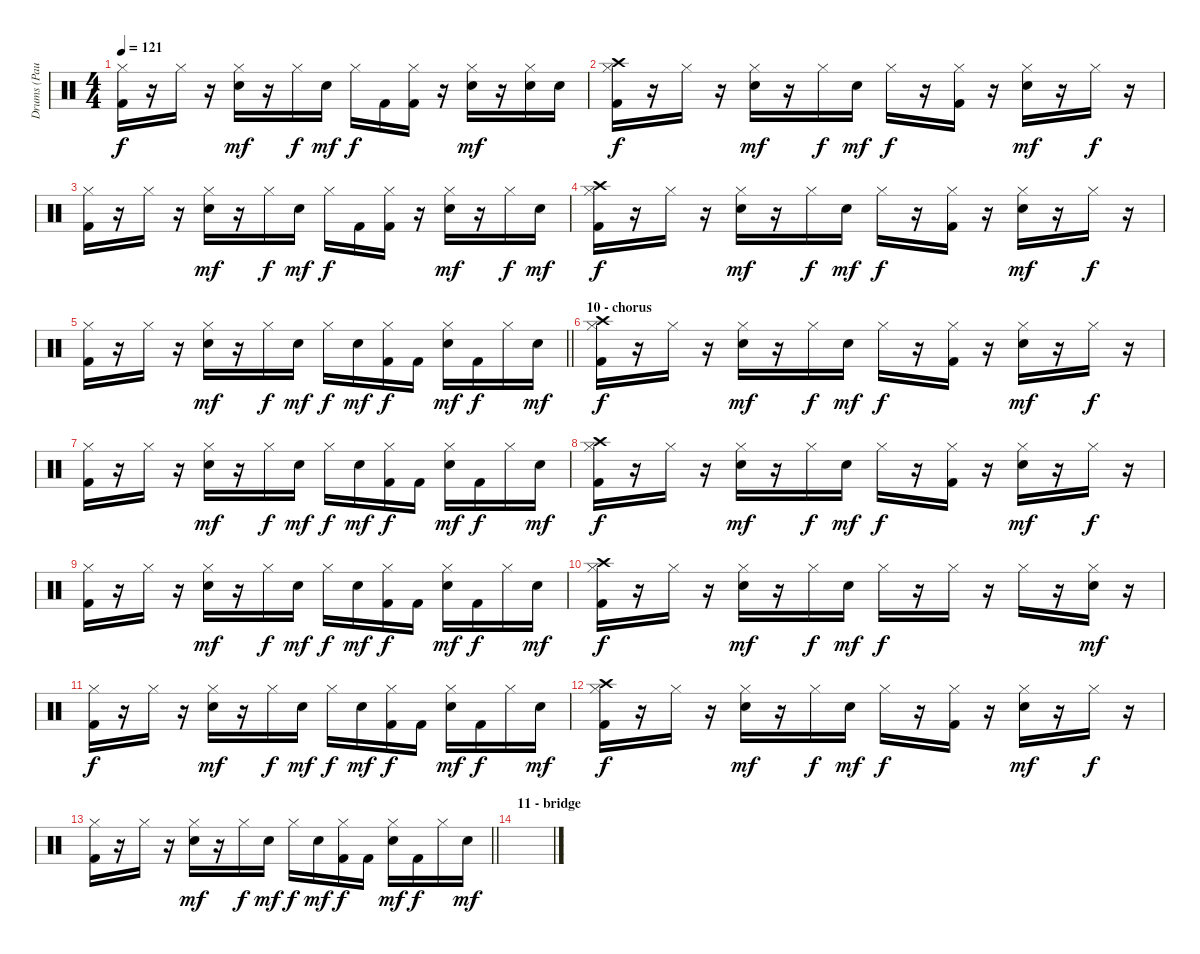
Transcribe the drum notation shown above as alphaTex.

\track ("Drums (Paul)" "Drums (Pau") {instrument percussion}
\staff {score}
\articulation defaults
\ts (4 4)
\tempo 121
\clef neutral
\ks c
("Hi-Hat (closed)" "Kick (hit) 2").16{dy f} r.16 "Hi-Hat (closed)".16 r.16 ("Hi-Hat (closed)" "Snare (hit) 2").16{dy mf} r.16 "Hi-Hat (closed)".16{dy f} "Snare (hit) 2".16{dy mf} "Hi-Hat (closed)".16{dy f} "Kick (hit) 2".16 ("Hi-Hat (closed)" "Kick (hit) 2").16 r.16 ("Hi-Hat (closed)" "Snare (hit) 2").16{dy mf} r.16 ("Hi-Hat (closed)" "Snare (hit) 2").16 "Snare (hit) 2".16 |
("Hi-Hat (closed)" "Crash high (hit)" "Kick (hit) 2").16{dy f} r.16 "Hi-Hat (closed)".16 r.16 ("Hi-Hat (closed)" "Snare (hit) 2").16{dy mf} r.16 "Hi-Hat (closed)".16{dy f} "Snare (hit) 2".16{dy mf} "Hi-Hat (closed)".16{dy f} r.16 ("Hi-Hat (closed)" "Kick (hit) 2").16 r.16 ("Hi-Hat (closed)" "Snare (hit) 2").16{dy mf} r.16 "Hi-Hat (closed)".16{dy f} r.16 |
("Hi-Hat (closed)" "Kick (hit) 2").16 r.16 "Hi-Hat (closed)".16 r.16 ("Hi-Hat (closed)" "Snare (hit) 2").16{dy mf} r.16 "Hi-Hat (closed)".16{dy f} "Snare (hit) 2".16{dy mf} "Hi-Hat (closed)".16{dy f} "Kick (hit) 2".16 ("Hi-Hat (closed)" "Kick (hit) 2").16 r.16 ("Hi-Hat (closed)" "Snare (hit) 2").16{dy mf} r.16 "Hi-Hat (closed)".16{dy f} "Snare (hit) 2".16{dy mf} |
("Hi-Hat (closed)" "Crash high (hit)" "Kick (hit) 2").16{dy f} r.16 "Hi-Hat (closed)".16 r.16 ("Hi-Hat (closed)" "Snare (hit) 2").16{dy mf} r.16 "Hi-Hat (closed)".16{dy f} "Snare (hit) 2".16{dy mf} "Hi-Hat (closed)".16{dy f} r.16 ("Hi-Hat (closed)" "Kick (hit) 2").16 r.16 ("Hi-Hat (closed)" "Snare (hit) 2").16{dy mf} r.16 "Hi-Hat (closed)".16{dy f} r.16 |
\barLineRight lightlight
("Hi-Hat (closed)" "Kick (hit) 2").16 r.16 "Hi-Hat (closed)".16 r.16 ("Hi-Hat (closed)" "Snare (hit) 2").16{dy mf} r.16 "Hi-Hat (closed)".16{dy f} "Snare (hit) 2".16{dy mf} "Hi-Hat (closed)".16{dy f} "Snare (hit) 2".16{dy mf} ("Hi-Hat (closed)" "Kick (hit) 2").16{dy f} "Kick (hit) 2".16 ("Hi-Hat (closed)" "Snare (hit) 2").16{dy mf} "Kick (hit) 2".16{dy f} "Hi-Hat (closed)".16 "Snare (hit) 2".16{dy mf} |
\section ("" "10 - chorus")
("Hi-Hat (closed)" "Crash high (hit)" "Kick (hit) 2").16{dy f} r.16 "Hi-Hat (closed)".16 r.16 ("Hi-Hat (closed)" "Snare (hit) 2").16{dy mf} r.16 "Hi-Hat (closed)".16{dy f} "Snare (hit) 2".16{dy mf} "Hi-Hat (closed)".16{dy f} r.16 ("Hi-Hat (closed)" "Kick (hit) 2").16 r.16 ("Hi-Hat (closed)" "Snare (hit) 2").16{dy mf} r.16 "Hi-Hat (closed)".16{dy f} r.16 |
("Hi-Hat (closed)" "Kick (hit) 2").16 r.16 "Hi-Hat (closed)".16 r.16 ("Hi-Hat (closed)" "Snare (hit) 2").16{dy mf} r.16 "Hi-Hat (closed)".16{dy f} "Snare (hit) 2".16{dy mf} "Hi-Hat (closed)".16{dy f} "Snare (hit) 2".16{dy mf} ("Hi-Hat (closed)" "Kick (hit) 2").16{dy f} "Kick (hit) 2".16 ("Hi-Hat (closed)" "Snare (hit) 2").16{dy mf} "Kick (hit) 2".16{dy f} "Hi-Hat (closed)".16 "Snare (hit) 2".16{dy mf} |
("Hi-Hat (closed)" "Crash high (hit)" "Kick (hit) 2").16{dy f} r.16 "Hi-Hat (closed)".16 r.16 ("Hi-Hat (closed)" "Snare (hit) 2").16{dy mf} r.16 "Hi-Hat (closed)".16{dy f} "Snare (hit) 2".16{dy mf} "Hi-Hat (closed)".16{dy f} r.16 ("Hi-Hat (closed)" "Kick (hit) 2").16 r.16 ("Hi-Hat (closed)" "Snare (hit) 2").16{dy mf} r.16 "Hi-Hat (closed)".16{dy f} r.16 |
("Hi-Hat (closed)" "Kick (hit) 2").16 r.16 "Hi-Hat (closed)".16 r.16 ("Hi-Hat (closed)" "Snare (hit) 2").16{dy mf} r.16 "Hi-Hat (closed)".16{dy f} "Snare (hit) 2".16{dy mf} "Hi-Hat (closed)".16{dy f} "Snare (hit) 2".16{dy mf} ("Hi-Hat (closed)" "Kick (hit) 2").16{dy f} "Kick (hit) 2".16 ("Hi-Hat (closed)" "Snare (hit) 2").16{dy mf} "Kick (hit) 2".16{dy f} "Hi-Hat (closed)".16 "Snare (hit) 2".16{dy mf} |
("Hi-Hat (closed)" "Crash high (hit)" "Kick (hit) 2").16{dy f} r.16 "Hi-Hat (closed)".16 r.16 ("Hi-Hat (closed)" "Snare (hit) 2").16{dy mf} r.16 "Hi-Hat (closed)".16{dy f} "Snare (hit) 2".16{dy mf} "Hi-Hat (closed)".16{dy f} r.16 "Hi-Hat (closed)".16 r.16 "Hi-Hat (closed)".16 r.16 ("Hi-Hat (closed)" "Snare (hit) 2").16{dy mf} r.16 |
("Hi-Hat (closed)" "Kick (hit) 2").16{dy f} r.16 "Hi-Hat (closed)".16 r.16 ("Hi-Hat (closed)" "Snare (hit) 2").16{dy mf} r.16 "Hi-Hat (closed)".16{dy f} "Snare (hit) 2".16{dy mf} "Hi-Hat (closed)".16{dy f} "Snare (hit) 2".16{dy mf} ("Hi-Hat (closed)" "Kick (hit) 2").16{dy f} "Kick (hit) 2".16 ("Hi-Hat (closed)" "Snare (hit) 2").16{dy mf} "Kick (hit) 2".16{dy f} "Hi-Hat (closed)".16 "Snare (hit) 2".16{dy mf} |
("Hi-Hat (closed)" "Crash high (hit)" "Kick (hit) 2").16{dy f} r.16 "Hi-Hat (closed)".16 r.16 ("Hi-Hat (closed)" "Snare (hit) 2").16{dy mf} r.16 "Hi-Hat (closed)".16{dy f} "Snare (hit) 2".16{dy mf} "Hi-Hat (closed)".16{dy f} r.16 ("Hi-Hat (closed)" "Kick (hit) 2").16 r.16 ("Hi-Hat (closed)" "Snare (hit) 2").16{dy mf} r.16 "Hi-Hat (closed)".16{dy f} r.16 |
\barLineRight lightlight
("Hi-Hat (closed)" "Kick (hit) 2").16 r.16 "Hi-Hat (closed)".16 r.16 ("Hi-Hat (closed)" "Snare (hit) 2").16{dy mf} r.16 "Hi-Hat (closed)".16{dy f} "Snare (hit) 2".16{dy mf} "Hi-Hat (closed)".16{dy f} "Snare (hit) 2".16{dy mf} ("Hi-Hat (closed)" "Kick (hit) 2").16{dy f} "Kick (hit) 2".16 ("Hi-Hat (closed)" "Snare (hit) 2").16{dy mf} "Kick (hit) 2".16{dy f} "Hi-Hat (closed)".16 "Snare (hit) 2".16{dy mf} |
\section ("" "11 - bridge")
